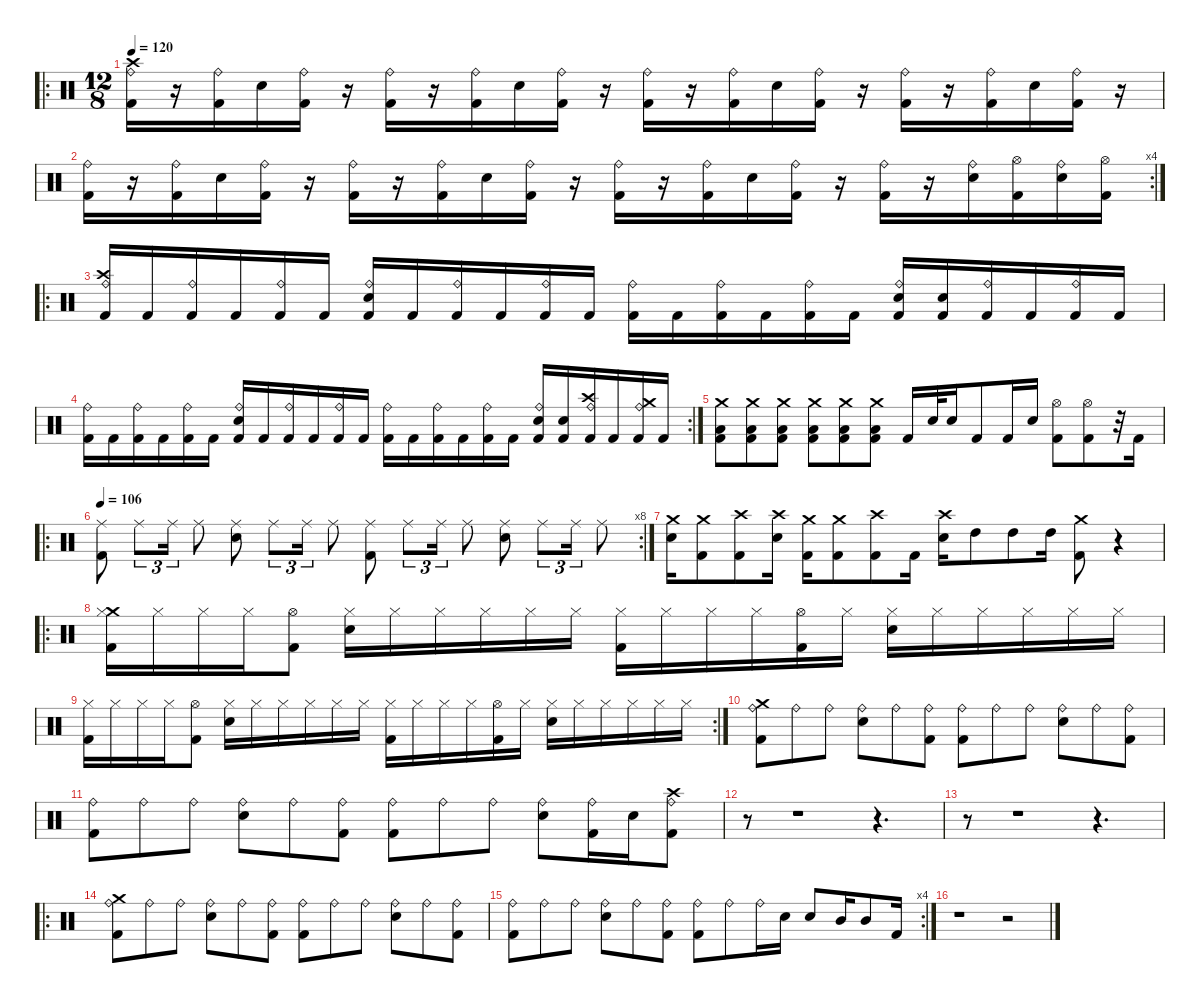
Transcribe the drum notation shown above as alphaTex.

\defaultSystemsLayout 4
\hideDynamics
\bracketExtendMode nobrackets
\singleTrackTrackNamePolicy hidden
\multiTrackTrackNamePolicy hidden
\firstSystemTrackNameMode fullname
\firstSystemTrackNameOrientation horizontal
\otherSystemsTrackNameOrientation horizontal
\track ("Drum set" "drm.") {instrument percussion}
\staff {score}
\articulation defaults
\ro
\ts (12 8)
\tempo 120
\clef neutral
\ks c
("Crash high (hit)" "Ride (bell)" "Kick (hit) 2").16{dy f beam Down} r.16{beam Down} ("Ride (bell)" "Kick (hit) 2").16{beam Down} "Snare (hit) 2".16{beam Down} ("Ride (bell)" "Kick (hit) 2").16{beam Down} r.16{beam Down} ("Ride (bell)" "Kick (hit) 2").16{beam Down} r.16{beam Down} ("Ride (bell)" "Kick (hit) 2").16{beam Down} "Snare (hit) 2".16{beam Down} ("Ride (bell)" "Kick (hit) 2").16{beam Down} r.16{beam Down} ("Ride (bell)" "Kick (hit) 2").16{beam Down} r.16{beam Down} ("Ride (bell)" "Kick (hit) 2").16{beam Down} "Snare (hit) 2".16{beam Down} ("Ride (bell)" "Kick (hit) 2").16{beam Down} r.16{beam Down} ("Ride (bell)" "Kick (hit) 2").16{beam Down} r.16{beam Down} ("Ride (bell)" "Kick (hit) 2").16{beam Down} "Snare (hit) 2".16{beam Down} ("Ride (bell)" "Kick (hit) 2").16{beam Down} r.16{beam Down} |
\rc 4
("Ride (bell)" "Kick (hit) 2").16{beam Down} r.16{beam Down} ("Ride (bell)" "Kick (hit) 2").16{beam Down} "Snare (hit) 2".16{beam Down} ("Ride (bell)" "Kick (hit) 2").16{beam Down} r.16{beam Down} ("Ride (bell)" "Kick (hit) 2").16{beam Down} r.16{beam Down} ("Ride (bell)" "Kick (hit) 2").16{beam Down} "Snare (hit) 2".16{beam Down} ("Ride (bell)" "Kick (hit) 2").16{beam Down} r.16{beam Down} ("Ride (bell)" "Kick (hit) 2").16{beam Down} r.16{beam Down} ("Ride (bell)" "Kick (hit) 2").16{beam Down} "Snare (hit) 2".16{beam Down} ("Ride (bell)" "Kick (hit) 2").16{beam Down} r.16{beam Down} ("Ride (bell)" "Kick (hit) 2").16{beam Down} r.16{beam Down} ("Ride (bell)" "Snare (hit) 2").16{beam Down} ("Hi-Hat (open)" "Kick (hit) 2").16{beam Down} ("Ride (bell)" "Snare (hit) 2").16{beam Down} ("Hi-Hat (open)" "Kick (hit) 2").16{beam Down} |
\ro
("Crash high (hit)" "Ride (bell)" "Kick (hit) 2").16{beam Up} "Kick (hit) 2".16{beam Up} ("Ride (bell)" "Kick (hit) 2").16{beam Up} "Kick (hit) 2".16{beam Up} ("Ride (bell)" "Kick (hit) 2").16{beam Up} "Kick (hit) 2".16{beam Up} ("Ride (bell)" "Snare (hit) 2" "Kick (hit) 2").16{beam Up} "Kick (hit) 2".16{beam Up} ("Ride (bell)" "Kick (hit) 2").16{beam Up} "Kick (hit) 2".16{beam Up} ("Ride (bell)" "Kick (hit) 2").16{beam Up} "Kick (hit) 2".16{beam Up} ("Ride (bell)" "Kick (hit) 2").16{beam Down} "Kick (hit) 2".16{beam Down} ("Ride (bell)" "Kick (hit) 2").16{beam Down} "Kick (hit) 2".16{beam Down} ("Ride (bell)" "Kick (hit) 2").16{beam Down} "Kick (hit) 2".16{beam Down} ("Ride (bell)" "Snare (hit) 2" "Kick (hit) 2").16{beam Up} ("Snare (hit) 2" "Kick (hit) 2").16{beam Up} ("Ride (bell)" "Kick (hit) 2").16{beam Up} "Kick (hit) 2".16{beam Up} ("Ride (bell)" "Kick (hit) 2").16{beam Up} "Kick (hit) 2".16{beam Up} |
\rc 2
("Ride (bell)" "Kick (hit) 2").16{beam Down} "Kick (hit) 2".16{beam Down} ("Ride (bell)" "Kick (hit) 2").16{beam Down} "Kick (hit) 2".16{beam Down} ("Ride (bell)" "Kick (hit) 2").16{beam Down} "Kick (hit) 2".16{beam Down} ("Ride (bell)" "Snare (hit) 2" "Kick (hit) 2").16{beam Up} "Kick (hit) 2".16{beam Up} ("Ride (bell)" "Kick (hit) 2").16{beam Up} "Kick (hit) 2".16{beam Up} ("Ride (bell)" "Kick (hit) 2").16{beam Up} "Kick (hit) 2".16{beam Up} ("Ride (bell)" "Kick (hit) 2").16{beam Down} "Kick (hit) 2".16{beam Down} ("Ride (bell)" "Kick (hit) 2").16{beam Down} "Kick (hit) 2".16{beam Down} ("Ride (bell)" "Kick (hit) 2").16{beam Down} "Kick (hit) 2".16{beam Down} ("Ride (bell)" "Snare (hit) 2" "Kick (hit) 2").16{beam Up} ("Snare (hit) 2" "Kick (hit) 2").16{beam Up} ("Crash high (hit)" "Ride (bell)" "Kick (hit) 2").16{beam Up} "Kick (hit) 2".16{beam Up} ("Crash medium (hit)" "Ride (bell)" "Kick (hit) 2").16{beam Up} "Kick (hit) 2".16{beam Up} |
("Crash medium (hit)" "Low Floor Tom (hit)" "Kick (hit) 2").8{beam Down} ("Crash medium (hit)" "Low Floor Tom (hit)" "Kick (hit) 2").8{beam Down} ("Crash medium (hit)" "Low Floor Tom (hit)" "Kick (hit) 2").8{beam Down} ("Crash medium (hit)" "Low Floor Tom (hit)" "Kick (hit) 2").8{beam Down} ("Crash medium (hit)" "Low Floor Tom (hit)" "Kick (hit) 2").8{beam Down} ("Crash medium (hit)" "Low Floor Tom (hit)" "Kick (hit) 2").8{beam Down} "Kick (hit) 2".16{beam Up} "Snare (hit) 2".32{beam Up} "Snare (hit) 2".16{beam Up} "Kick (hit) 2".8{beam Up} "Kick (hit) 2".16{beam Up} "Snare (hit) 2".16{beam Up} ("Hi-Hat (open)" "Kick (hit) 2").8{beam Down} ("Hi-Hat (open)" "Kick (hit) 2").8{beam Down} r.32{beam Down} "Kick (hit) 2".16{beam Down} |
\ro
\rc 8
\tempo 106
("Ride (middle)" "Kick (hit) 2").8{beam Down} "Ride (middle)".8{tu (3 2) beam Down} "Ride (middle)".16{tu (3 2) beam Down} "Ride (middle)".8{beam Down} ("Ride (middle)" "Snare (hit) 2").8{beam Down} "Ride (middle)".8{tu (3 2) beam Down} "Ride (middle)".16{tu (3 2) beam Down} "Ride (middle)".8{beam Down} ("Ride (middle)" "Kick (hit) 2").8{beam Down} "Ride (middle)".8{tu (3 2) beam Down} "Ride (middle)".16{tu (3 2) beam Down} "Ride (middle)".8{beam Down} ("Ride (middle)" "Snare (hit) 2").8{beam Down} "Ride (middle)".8{tu (3 2) beam Down} "Ride (middle)".16{tu (3 2) beam Down} "Ride (middle)".8{beam Down} |
("Crash medium (hit)" "Snare (hit) 2").16{beam Down} ("Crash medium (hit)" "Kick (hit) 2").8{beam Down} ("Crash high (hit)" "Kick (hit) 2").8{beam Down} ("Crash high (hit)" "Snare (hit) 2").16{beam Down} ("Crash medium (hit)" "Kick (hit) 2").16{beam Down} ("Crash medium (hit)" "Kick (hit) 2").8{beam Down} ("Crash high (hit)" "Kick (hit) 2").8{beam Down} "Kick (hit) 2".16{beam Down} ("Crash high (hit)" "Snare (hit) 2").16{beam Down} "High Tom (hit)".8{beam Down} "High Tom (hit)".8{beam Down} "High Tom (hit)".16{beam Down} ("Crash medium (hit)" "Kick (hit) 2").8{beam Down} r.4{beam Down} |
\ro
\tempo (106 hide)
("Crash medium (hit)" "Hi-Hat (closed)" "Kick (hit) 2").16{beam Down} "Hi-Hat (closed)".16{beam Down} "Hi-Hat (closed)".16{beam Down} "Hi-Hat (closed)".16{beam Down} ("Hi-Hat (open)" "Kick (hit) 2").8{beam Down} ("Hi-Hat (closed)" "Snare (hit) 2").16{beam Down} "Hi-Hat (closed)".16{beam Down} "Hi-Hat (closed)".16{beam Down} "Hi-Hat (closed)".16{beam Down} "Hi-Hat (closed)".16{beam Down} "Hi-Hat (closed)".16{beam Down} ("Hi-Hat (closed)" "Kick (hit) 2").16{beam Down} "Hi-Hat (closed)".16{beam Down} "Hi-Hat (closed)".16{beam Down} "Hi-Hat (closed)".16{beam Down} ("Hi-Hat (open)" "Kick (hit) 2").16{beam Down} "Hi-Hat (closed)".16{beam Down} ("Hi-Hat (closed)" "Snare (hit) 2").16{beam Down} "Hi-Hat (closed)".16{beam Down} "Hi-Hat (closed)".16{beam Down} "Hi-Hat (closed)".16{beam Down} "Hi-Hat (closed)".16{beam Down} "Hi-Hat (closed)".16{beam Down} |
\rc 2
("Hi-Hat (closed)" "Kick (hit) 2").16{beam Down} "Hi-Hat (closed)".16{beam Down} "Hi-Hat (closed)".16{beam Down} "Hi-Hat (closed)".16{beam Down} ("Hi-Hat (open)" "Kick (hit) 2").8{beam Down} ("Hi-Hat (closed)" "Snare (hit) 2").16{beam Down} "Hi-Hat (closed)".16{beam Down} "Hi-Hat (closed)".16{beam Down} "Hi-Hat (closed)".16{beam Down} "Hi-Hat (closed)".16{beam Down} "Hi-Hat (closed)".16{beam Down} ("Hi-Hat (closed)" "Kick (hit) 2").16{beam Down} "Hi-Hat (closed)".16{beam Down} "Hi-Hat (closed)".16{beam Down} "Hi-Hat (closed)".16{beam Down} ("Hi-Hat (open)" "Kick (hit) 2").16{beam Down} "Hi-Hat (closed)".16{beam Down} ("Hi-Hat (closed)" "Snare (hit) 2").16{beam Down} "Hi-Hat (closed)".16{beam Down} "Hi-Hat (closed)".16{beam Down} "Hi-Hat (closed)".16{beam Down} "Hi-Hat (closed)".16{beam Down} "Hi-Hat (closed)".16{beam Down} |
("Crash medium (hit)" "Ride (bell)" "Kick (hit) 2").8{beam Down} "Ride (bell)".8{beam Down} "Ride (bell)".8{beam Down} ("Ride (bell)" "Snare (hit) 2").8{beam Down} "Ride (bell)".8{beam Down} ("Ride (bell)" "Kick (hit) 2").8{beam Down} ("Ride (bell)" "Kick (hit) 2").8{beam Down} "Ride (bell)".8{beam Down} "Ride (bell)".8{beam Down} ("Ride (bell)" "Snare (hit) 2").8{beam Down} "Ride (bell)".8{beam Down} ("Ride (bell)" "Kick (hit) 2").8{beam Down} |
("Ride (bell)" "Kick (hit) 2").8{beam Down} "Ride (bell)".8{beam Down} "Ride (bell)".8{beam Down} ("Ride (bell)" "Snare (hit) 2").8{beam Down} "Ride (bell)".8{beam Down} ("Ride (bell)" "Kick (hit) 2").8{beam Down} ("Ride (bell)" "Kick (hit) 2").8{beam Down} "Ride (bell)".8{beam Down} "Ride (bell)".8{beam Down} ("Ride (bell)" "Snare (hit) 2").8{beam Down} ("Ride (bell)" "Kick (hit) 2").16{beam Down} "Snare (hit) 2".16{beam Down} ("Crash high (hit)" "Ride (bell)" "Kick (hit) 2").8{beam Down} |
r.8{beam Down} r.1{beam Down} r.4{d beam Down} |
r.8{beam Down} r.1{beam Down} r.4{d beam Down} |
\ro
("Crash medium (hit)" "Ride (bell)" "Kick (hit) 2").8{beam Down} "Ride (bell)".8{beam Down} "Ride (bell)".8{beam Down} ("Ride (bell)" "Snare (hit) 2").8{beam Down} "Ride (bell)".8{beam Down} ("Ride (bell)" "Kick (hit) 2").8{beam Down} ("Ride (bell)" "Kick (hit) 2").8{beam Down} "Ride (bell)".8{beam Down} "Ride (bell)".8{beam Down} ("Ride (bell)" "Snare (hit) 2").8{beam Down} "Ride (bell)".8{beam Down} ("Ride (bell)" "Kick (hit) 2").8{beam Down} |
\rc 4
("Ride (bell)" "Kick (hit) 2").8{beam Down} "Ride (bell)".8{beam Down} "Ride (bell)".8{beam Down} ("Ride (bell)" "Snare (hit) 2").8{beam Down} "Ride (bell)".8{beam Down} ("Ride (bell)" "Kick (hit) 2").8{beam Down} ("Ride (bell)" "Kick (hit) 2").8{beam Down} "Ride (bell)".8{beam Down} "Ride (bell)".16{beam Down} "Snare (hit) 2".16{beam Down} "Snare (hit) 2".8{beam Up} "Mid Tom (hit)".16{beam Up} "Mid Tom (hit)".8{beam Up} "Kick (hit) 2".16{beam Up} |
r.1{beam Down} r.2{beam Down}
